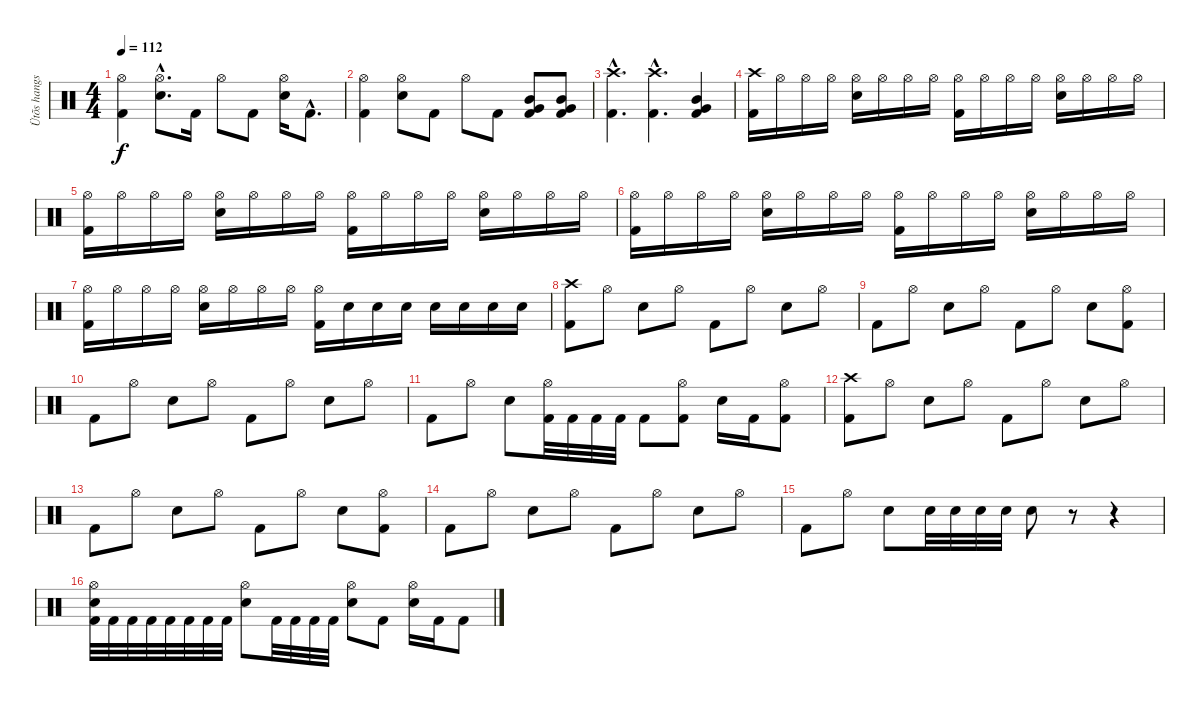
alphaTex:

\track ("Ütõs hangszer" "Ütõs hangs") {instrument percussion}
\staff {score}
\articulation defaults
\ts (4 4)
\tempo 112
\clef neutral
\ks c
("Hi-Hat (open)" "Kick (hit) 2").4{dy f} ("Hi-Hat (open)"{hac} "Electric Snare (hit)"{hac}).8{d} "Kick (hit) 2".16 "Hi-Hat (open)".8 "Kick (hit) 2".8 ("Hi-Hat (open)" "Electric Snare (hit)").16 "Kick (hit) 2"{hac}.8{d} |
("Hi-Hat (open)" "Kick (hit) 2").4 ("Hi-Hat (open)" "Electric Snare (hit)").8 "Kick (hit) 2".8 "Hi-Hat (open)".8 "Kick (hit) 2".8 ("Mid Tom (hit)" "Very Low Tom (hit)" "Kick (hit) 2").8 ("Mid Tom (hit)" "Very Low Tom (hit)" "Kick (hit) 2").8 |
("Crash high (hit)"{hac} "Kick (hit) 2"{hac}).4{d} ("Crash high (hit)"{hac} "Kick (hit) 2"{hac}).4{d} ("Mid Tom (hit)" "Very Low Tom (hit)" "Kick (hit) 2").4 |
("Crash high (hit)" "Kick (hit) 2").16 "Hi-Hat (open)".16 "Hi-Hat (open)".16 "Hi-Hat (open)".16 ("Hi-Hat (open)" "Electric Snare (hit)").16 "Hi-Hat (open)".16 "Hi-Hat (open)".16 "Hi-Hat (open)".16 ("Hi-Hat (open)" "Kick (hit) 2").16 "Hi-Hat (open)".16 "Hi-Hat (open)".16 "Hi-Hat (open)".16 ("Hi-Hat (open)" "Electric Snare (hit)").16 "Hi-Hat (open)".16 "Hi-Hat (open)".16 "Hi-Hat (open)".16 |
("Hi-Hat (open)" "Kick (hit) 2").16 "Hi-Hat (open)".16 "Hi-Hat (open)".16 "Hi-Hat (open)".16 ("Hi-Hat (open)" "Electric Snare (hit)").16 "Hi-Hat (open)".16 "Hi-Hat (open)".16 "Hi-Hat (open)".16 ("Hi-Hat (open)" "Kick (hit) 2").16 "Hi-Hat (open)".16 "Hi-Hat (open)".16 "Hi-Hat (open)".16 ("Hi-Hat (open)" "Electric Snare (hit)").16 "Hi-Hat (open)".16 "Hi-Hat (open)".16 "Hi-Hat (open)".16 |
("Hi-Hat (open)" "Kick (hit) 2").16 "Hi-Hat (open)".16 "Hi-Hat (open)".16 "Hi-Hat (open)".16 ("Hi-Hat (open)" "Electric Snare (hit)").16 "Hi-Hat (open)".16 "Hi-Hat (open)".16 "Hi-Hat (open)".16 ("Hi-Hat (open)" "Kick (hit) 2").16 "Hi-Hat (open)".16 "Hi-Hat (open)".16 "Hi-Hat (open)".16 ("Hi-Hat (open)" "Electric Snare (hit)").16 "Hi-Hat (open)".16 "Hi-Hat (open)".16 "Hi-Hat (open)".16 |
("Hi-Hat (open)" "Kick (hit) 2").16 "Hi-Hat (open)".16 "Hi-Hat (open)".16 "Hi-Hat (open)".16 ("Hi-Hat (open)" "Electric Snare (hit)").16 "Hi-Hat (open)".16 "Hi-Hat (open)".16 "Hi-Hat (open)".16 ("Hi-Hat (open)" "Kick (hit) 2").16 "Electric Snare (hit)".16 "Electric Snare (hit)".16 "Electric Snare (hit)".16 "Electric Snare (hit)".16 "Electric Snare (hit)".16 "Electric Snare (hit)".16 "Electric Snare (hit)".16 |
("Crash high (hit)" "Kick (hit) 2").8 "Hi-Hat (open)".8 "Electric Snare (hit)".8 "Hi-Hat (open)".8 "Kick (hit) 2".8 "Hi-Hat (open)".8 "Electric Snare (hit)".8 "Hi-Hat (open)".8 |
"Kick (hit) 2".8 "Hi-Hat (open)".8 "Electric Snare (hit)".8 "Hi-Hat (open)".8 "Kick (hit) 2".8 "Hi-Hat (open)".8 "Electric Snare (hit)".8 ("Hi-Hat (open)" "Kick (hit) 2").8 |
"Kick (hit) 2".8 "Hi-Hat (open)".8 "Electric Snare (hit)".8 "Hi-Hat (open)".8 "Kick (hit) 2".8 "Hi-Hat (open)".8 "Electric Snare (hit)".8 "Hi-Hat (open)".8 |
"Kick (hit) 2".8 "Hi-Hat (open)".8 "Electric Snare (hit)".8 ("Hi-Hat (open)" "Kick (hit) 2").32 "Kick (hit) 2".32 "Kick (hit) 2".32 "Kick (hit) 2".32 "Kick (hit) 2".8 ("Hi-Hat (open)" "Kick (hit) 2").8 "Electric Snare (hit)".16 "Kick (hit) 2".16 ("Hi-Hat (open)" "Kick (hit) 2").8 |
("Crash high (hit)" "Kick (hit) 2").8 "Hi-Hat (open)".8 "Electric Snare (hit)".8 "Hi-Hat (open)".8 "Kick (hit) 2".8 "Hi-Hat (open)".8 "Electric Snare (hit)".8 "Hi-Hat (open)".8 |
"Kick (hit) 2".8 "Hi-Hat (open)".8 "Electric Snare (hit)".8 "Hi-Hat (open)".8 "Kick (hit) 2".8 "Hi-Hat (open)".8 "Electric Snare (hit)".8 ("Hi-Hat (open)" "Kick (hit) 2").8 |
"Kick (hit) 2".8 "Hi-Hat (open)".8 "Electric Snare (hit)".8 "Hi-Hat (open)".8 "Kick (hit) 2".8 "Hi-Hat (open)".8 "Electric Snare (hit)".8 "Hi-Hat (open)".8 |
"Kick (hit) 2".8 "Hi-Hat (open)".8 "Electric Snare (hit)".8 "Electric Snare (hit)".32 "Electric Snare (hit)".32 "Electric Snare (hit)".32 "Electric Snare (hit)".32 "Electric Snare (hit)".8 r.8 r.4 |
("Hi-Hat (open)" "Electric Snare (hit)" "Kick (hit) 2").32 "Kick (hit) 2".32 "Kick (hit) 2".32 "Kick (hit) 2".32 "Kick (hit) 2".32 "Kick (hit) 2".32 "Kick (hit) 2".32 "Kick (hit) 2".32 ("Hi-Hat (open)" "Electric Snare (hit)").8 "Kick (hit) 2".32 "Kick (hit) 2".32 "Kick (hit) 2".32 "Kick (hit) 2".32 ("Hi-Hat (open)" "Electric Snare (hit)").8 "Kick (hit) 2".8 ("Hi-Hat (open)" "Electric Snare (hit)").16 "Kick (hit) 2".16 "Kick (hit) 2".8
